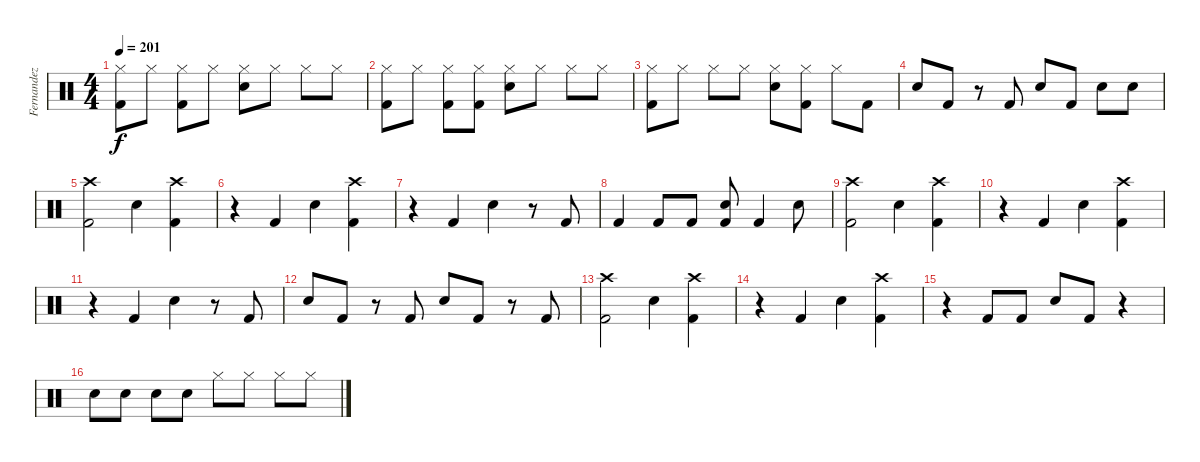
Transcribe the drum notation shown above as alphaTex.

\track ("Fernandez" "Fernandez") {instrument percussion}
\staff {score}
\articulation defaults
\ts (4 4)
\tempo 201
\clef neutral
\ks c
("Kick (hit) 2" "Hi-Hat (closed)").8{dy f} "Hi-Hat (closed)".8 ("Kick (hit) 2" "Hi-Hat (closed)").8 "Hi-Hat (closed)".8 ("Snare (hit) 2" "Hi-Hat (closed)").8 "Hi-Hat (closed)".8 "Hi-Hat (closed)".8 "Hi-Hat (closed)".8 |
("Kick (hit) 2" "Hi-Hat (closed)").8 "Hi-Hat (closed)".8 ("Kick (hit) 2" "Hi-Hat (closed)").8 ("Kick (hit) 2" "Hi-Hat (closed)").8 ("Snare (hit) 2" "Hi-Hat (closed)").8 "Hi-Hat (closed)".8 "Hi-Hat (closed)".8 "Hi-Hat (closed)".8 |
("Kick (hit) 2" "Hi-Hat (closed)").8 "Hi-Hat (closed)".8 "Hi-Hat (closed)".8 "Hi-Hat (closed)".8 ("Snare (hit) 2" "Hi-Hat (closed)").8 ("Kick (hit) 2" "Hi-Hat (closed)").8 "Hi-Hat (closed)".8 "Kick (hit) 2".8 |
"Snare (hit) 2".8 "Kick (hit) 2".8 r.8 "Kick (hit) 2".8 "Snare (hit) 2".8 "Kick (hit) 2".8 "Snare (hit) 2".8 "Snare (hit) 2".8 |
("Kick (hit) 2" "Crash high (hit)").2 "Snare (hit) 2".4 ("Kick (hit) 2" "Crash high (hit)").4 |
r.4 "Kick (hit) 2".4 "Snare (hit) 2".4 ("Crash high (hit)" "Kick (hit) 2").4 |
r.4 "Kick (hit) 2".4 "Snare (hit) 2".4 r.8 "Kick (hit) 2".8 |
"Kick (hit) 2".4 "Kick (hit) 2".8 "Kick (hit) 2".8 ("Snare (hit) 2" "Kick (hit) 2").8 "Kick (hit) 2".4 "Snare (hit) 2".8 |
("Crash high (hit)" "Kick (hit) 2").2 "Snare (hit) 2".4 ("Crash high (hit)" "Kick (hit) 2").4 |
r.4 "Kick (hit) 2".4 "Snare (hit) 2".4 ("Crash high (hit)" "Kick (hit) 2").4 |
r.4 "Kick (hit) 2".4 "Snare (hit) 2".4 r.8 "Kick (hit) 2".8 |
"Snare (hit) 2".8 "Kick (hit) 2".8 r.8 "Kick (hit) 2".8 "Snare (hit) 2".8 "Kick (hit) 2".8 r.8 "Kick (hit) 2".8 |
("Crash high (hit)" "Kick (hit) 2").2 "Snare (hit) 2".4 ("Crash high (hit)" "Kick (hit) 2").4 |
r.4 "Kick (hit) 2".4 "Snare (hit) 2".4 ("Crash high (hit)" "Kick (hit) 2").4 |
r.4 "Kick (hit) 2".8 "Kick (hit) 2".8 "Snare (hit) 2".8 "Kick (hit) 2".8 r.4 |
"Snare (hit) 2".8 "Snare (hit) 2".8 "Snare (hit) 2".8 "Snare (hit) 2".8 "Hi-Hat (closed)".8 "Hi-Hat (closed)".8 "Hi-Hat (closed)".8 "Hi-Hat (closed)".8
